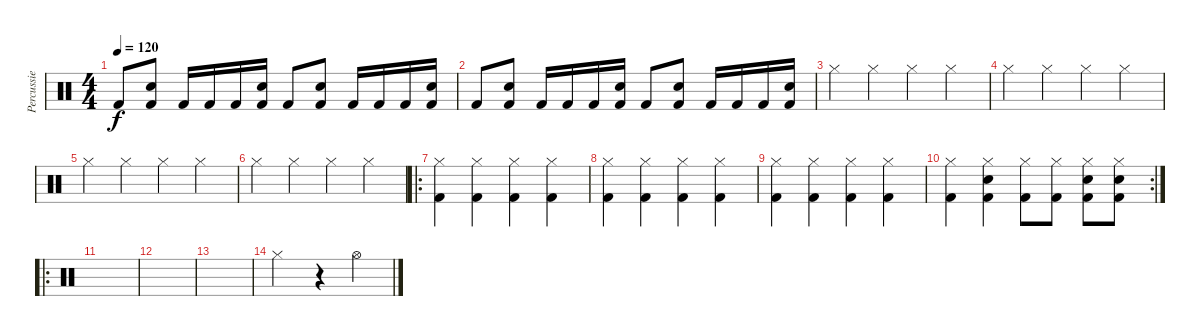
\track ("Percussie" "Percussie") {instrument percussion}
\staff {score}
\articulation defaults
\ts (4 4)
\tempo 120
\clef neutral
\ks c "Kick (hit) 2".8{dy f}
("Snare (hit) 2" "Kick (hit) 2").8 "Kick (hit) 2".16 "Kick (hit) 2".16 "Kick (hit) 2".16 ("Snare (hit) 2" "Kick (hit) 2").16 "Kick (hit) 2".8 ("Snare (hit) 2" "Kick (hit) 2").8 "Kick (hit) 2".16 "Kick (hit) 2".16 "Kick (hit) 2".16 ("Snare (hit) 2" "Kick (hit) 2").16 |
"Kick (hit) 2".8 ("Snare (hit) 2" "Kick (hit) 2").8 "Kick (hit) 2".16 "Kick (hit) 2".16 "Kick (hit) 2".16 ("Snare (hit) 2" "Kick (hit) 2").16 "Kick (hit) 2".8 ("Snare (hit) 2" "Kick (hit) 2").8 "Kick (hit) 2".16 "Kick (hit) 2".16 "Kick (hit) 2".16 ("Snare (hit) 2" "Kick (hit) 2").16 |
"Hi-Hat (closed)".4 "Hi-Hat (closed)".4 "Hi-Hat (closed)".4 "Hi-Hat (closed)".4 |
"Hi-Hat (closed)".4 "Hi-Hat (closed)".4 "Hi-Hat (closed)".4 "Hi-Hat (closed)".4 |
"Hi-Hat (closed)".4 "Hi-Hat (closed)".4 "Hi-Hat (closed)".4 "Hi-Hat (closed)".4 |
"Hi-Hat (closed)".4 "Hi-Hat (closed)".4 "Hi-Hat (closed)".4 "Hi-Hat (closed)".4 |
\ro
("Kick (hit) 2" "Hi-Hat (closed)").4 ("Kick (hit) 2" "Hi-Hat (closed)").4 ("Kick (hit) 2" "Hi-Hat (closed)").4 ("Hi-Hat (closed)" "Kick (hit) 2").4 |
("Kick (hit) 2" "Hi-Hat (closed)").4 ("Kick (hit) 2" "Hi-Hat (closed)").4 ("Kick (hit) 2" "Hi-Hat (closed)").4 ("Hi-Hat (closed)" "Kick (hit) 2").4 |
("Kick (hit) 2" "Hi-Hat (closed)").4 ("Hi-Hat (closed)" "Kick (hit) 2").4 ("Kick (hit) 2" "Hi-Hat (closed)").4 ("Hi-Hat (closed)" "Kick (hit) 2").4 |
\rc 2
("Kick (hit) 2" "Hi-Hat (closed)").4 ("Snare (hit) 2" "Kick (hit) 2" "Hi-Hat (closed)").4 ("Kick (hit) 2" "Hi-Hat (closed)").8 ("Kick (hit) 2" "Hi-Hat (closed)").8 ("Snare (hit) 2" "Kick (hit) 2" "Hi-Hat (closed)").8 ("Snare (hit) 2" "Kick (hit) 2" "Hi-Hat (closed)").8 |
\ro
|
|
|
"Hi-Hat (closed)".2 r.4 "Hi-Hat (open)".4
